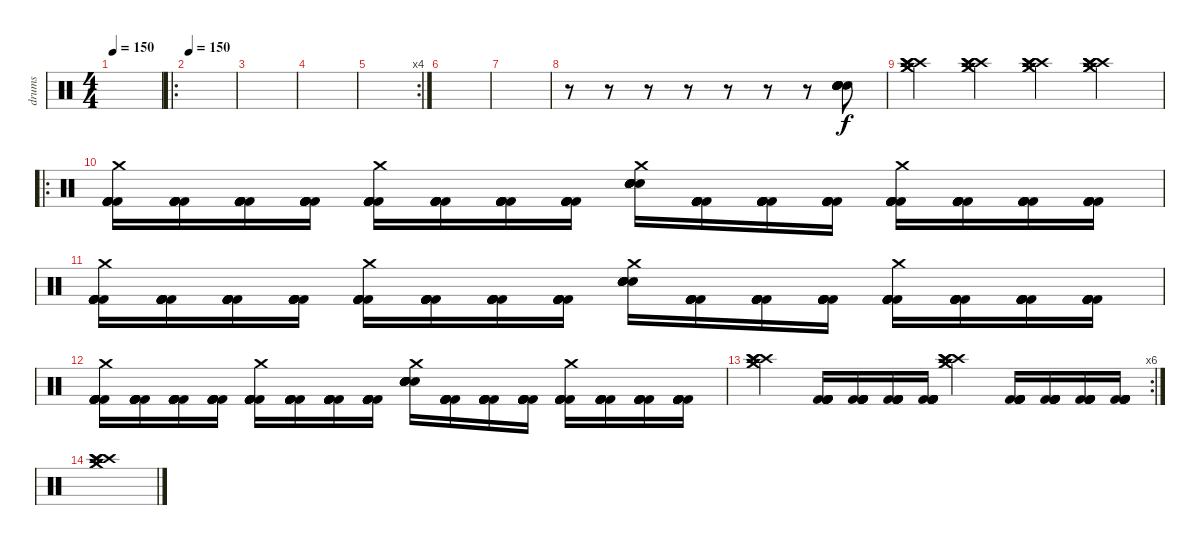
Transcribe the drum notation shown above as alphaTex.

\track ("drums" "drums") {instrument percussion}
\staff {score}
\articulation defaults
\ts (4 4)
\tempo 150
\clef neutral
\ks c
|
\ro
\tempo 150
|
|
|
\rc 4
|
|
|
r.8 r.8 r.8 r.8 r.8 r.8 r.8 ("Snare (hit) 2" "Snare (hit) 2" "Snare (hit) 2" "Electric Snare (hit)" "Electric Snare (hit)" "Electric Snare (hit)").8 |
("Crash medium (hit)" "Crash medium (hit)" "Crash high (hit)" "Crash high (hit)" "Crash high (hit)" "Crash high (hit)").4 ("Crash medium (hit)" "Crash medium (hit)" "Crash high (hit)" "Crash high (hit)" "Crash high (hit)" "Crash high (hit)").4 ("Crash medium (hit)" "Crash medium (hit)" "Crash high (hit)" "Crash high (hit)" "Crash high (hit)" "Crash high (hit)").4 ("Crash medium (hit)" "Crash medium (hit)" "Crash high (hit)" "Crash high (hit)" "Crash high (hit)" "Crash high (hit)").4 |
\ro
("Crash medium (hit)" "Kick (hit) 2" "Kick (hit) 2" "Kick (hit) 2" "Kick (hit) 2" "Kick (hit) 2").16 ("Kick (hit) 2" "Kick (hit) 2" "Kick (hit) 2" "Kick (hit) 2" "Kick (hit) 2" "Kick (hit) 2").16 ("Kick (hit) 2" "Kick (hit) 2" "Kick (hit) 2" "Kick (hit) 2" "Kick (hit) 2" "Kick (hit) 2").16 ("Kick (hit) 2" "Kick (hit) 2" "Kick (hit) 2" "Kick (hit) 2" "Kick (hit) 2" "Kick (hit) 2").16 ("Crash medium (hit)" "Kick (hit) 2" "Kick (hit) 2" "Kick (hit) 2" "Kick (hit) 2" "Kick (hit) 2").16 ("Kick (hit) 2" "Kick (hit) 2" "Kick (hit) 2" "Kick (hit) 2" "Kick (hit) 2" "Kick (hit) 2").16 ("Kick (hit) 2" "Kick (hit) 2" "Kick (hit) 2" "Kick (hit) 2" "Kick (hit) 2" "Kick (hit) 2").16 ("Kick (hit) 2" "Kick (hit) 2" "Kick (hit) 2" "Kick (hit) 2" "Kick (hit) 2" "Kick (hit) 2").16 ("Crash medium (hit)" "Snare (hit) 2" "Snare (hit) 2" "Electric Snare (hit)" "Electric Snare (hit)" "Electric Snare (hit)").16 ("Kick (hit) 2" "Kick (hit) 2" "Kick (hit) 2" "Kick (hit) 2" "Kick (hit) 2" "Kick (hit) 2").16 ("Kick (hit) 2" "Kick (hit) 2" "Kick (hit) 2" "Kick (hit) 2" "Kick (hit) 2" "Kick (hit) 2").16 ("Kick (hit) 2" "Kick (hit) 2" "Kick (hit) 2" "Kick (hit) 2" "Kick (hit) 2" "Kick (hit) 2").16 ("Crash medium (hit)" "Kick (hit) 2" "Kick (hit) 2" "Kick (hit) 2" "Kick (hit) 2" "Kick (hit) 2").16 ("Kick (hit) 2" "Kick (hit) 2" "Kick (hit) 2" "Kick (hit) 2" "Kick (hit) 2" "Kick (hit) 2").16 ("Kick (hit) 2" "Kick (hit) 2" "Kick (hit) 2" "Kick (hit) 2" "Kick (hit) 2" "Kick (hit) 2").16 ("Kick (hit) 2" "Kick (hit) 2" "Kick (hit) 2" "Kick (hit) 2" "Kick (hit) 2" "Kick (hit) 2").16 |
("Crash medium (hit)" "Kick (hit) 2" "Kick (hit) 2" "Kick (hit) 2" "Kick (hit) 2" "Kick (hit) 2").16 ("Kick (hit) 2" "Kick (hit) 2" "Kick (hit) 2" "Kick (hit) 2" "Kick (hit) 2" "Kick (hit) 2").16 ("Kick (hit) 2" "Kick (hit) 2" "Kick (hit) 2" "Kick (hit) 2" "Kick (hit) 2" "Kick (hit) 2").16 ("Kick (hit) 2" "Kick (hit) 2" "Kick (hit) 2" "Kick (hit) 2" "Kick (hit) 2" "Kick (hit) 2").16 ("Crash medium (hit)" "Kick (hit) 2" "Kick (hit) 2" "Kick (hit) 2" "Kick (hit) 2" "Kick (hit) 2").16 ("Kick (hit) 2" "Kick (hit) 2" "Kick (hit) 2" "Kick (hit) 2" "Kick (hit) 2" "Kick (hit) 2").16 ("Kick (hit) 2" "Kick (hit) 2" "Kick (hit) 2" "Kick (hit) 2" "Kick (hit) 2" "Kick (hit) 2").16 ("Kick (hit) 2" "Kick (hit) 2" "Kick (hit) 2" "Kick (hit) 2" "Kick (hit) 2" "Kick (hit) 2").16 ("Crash medium (hit)" "Snare (hit) 2" "Snare (hit) 2" "Electric Snare (hit)" "Electric Snare (hit)" "Electric Snare (hit)").16 ("Kick (hit) 2" "Kick (hit) 2" "Kick (hit) 2" "Kick (hit) 2" "Kick (hit) 2" "Kick (hit) 2").16 ("Kick (hit) 2" "Kick (hit) 2" "Kick (hit) 2" "Kick (hit) 2" "Kick (hit) 2" "Kick (hit) 2").16 ("Kick (hit) 2" "Kick (hit) 2" "Kick (hit) 2" "Kick (hit) 2" "Kick (hit) 2" "Kick (hit) 2").16 ("Crash medium (hit)" "Kick (hit) 2" "Kick (hit) 2" "Kick (hit) 2" "Kick (hit) 2" "Kick (hit) 2").16 ("Kick (hit) 2" "Kick (hit) 2" "Kick (hit) 2" "Kick (hit) 2" "Kick (hit) 2" "Kick (hit) 2").16 ("Kick (hit) 2" "Kick (hit) 2" "Kick (hit) 2" "Kick (hit) 2" "Kick (hit) 2" "Kick (hit) 2").16 ("Kick (hit) 2" "Kick (hit) 2" "Kick (hit) 2" "Kick (hit) 2" "Kick (hit) 2" "Kick (hit) 2").16 |
("Crash medium (hit)" "Kick (hit) 2" "Kick (hit) 2" "Kick (hit) 2" "Kick (hit) 2" "Kick (hit) 2").16 ("Kick (hit) 2" "Kick (hit) 2" "Kick (hit) 2" "Kick (hit) 2" "Kick (hit) 2" "Kick (hit) 2").16 ("Kick (hit) 2" "Kick (hit) 2" "Kick (hit) 2" "Kick (hit) 2" "Kick (hit) 2" "Kick (hit) 2").16 ("Kick (hit) 2" "Kick (hit) 2" "Kick (hit) 2" "Kick (hit) 2" "Kick (hit) 2" "Kick (hit) 2").16 ("Crash medium (hit)" "Kick (hit) 2" "Kick (hit) 2" "Kick (hit) 2" "Kick (hit) 2" "Kick (hit) 2").16 ("Kick (hit) 2" "Kick (hit) 2" "Kick (hit) 2" "Kick (hit) 2" "Kick (hit) 2" "Kick (hit) 2").16 ("Kick (hit) 2" "Kick (hit) 2" "Kick (hit) 2" "Kick (hit) 2" "Kick (hit) 2" "Kick (hit) 2").16 ("Kick (hit) 2" "Kick (hit) 2" "Kick (hit) 2" "Kick (hit) 2" "Kick (hit) 2" "Kick (hit) 2").16 ("Crash medium (hit)" "Snare (hit) 2" "Snare (hit) 2" "Electric Snare (hit)" "Electric Snare (hit)" "Electric Snare (hit)").16 ("Kick (hit) 2" "Kick (hit) 2" "Kick (hit) 2" "Kick (hit) 2" "Kick (hit) 2" "Kick (hit) 2").16 ("Kick (hit) 2" "Kick (hit) 2" "Kick (hit) 2" "Kick (hit) 2" "Kick (hit) 2" "Kick (hit) 2").16 ("Kick (hit) 2" "Kick (hit) 2" "Kick (hit) 2" "Kick (hit) 2" "Kick (hit) 2" "Kick (hit) 2").16 ("Crash medium (hit)" "Kick (hit) 2" "Kick (hit) 2" "Kick (hit) 2" "Kick (hit) 2" "Kick (hit) 2").16 ("Kick (hit) 2" "Kick (hit) 2" "Kick (hit) 2" "Kick (hit) 2" "Kick (hit) 2" "Kick (hit) 2").16 ("Kick (hit) 2" "Kick (hit) 2" "Kick (hit) 2" "Kick (hit) 2" "Kick (hit) 2" "Kick (hit) 2").16 ("Kick (hit) 2" "Kick (hit) 2" "Kick (hit) 2" "Kick (hit) 2" "Kick (hit) 2" "Kick (hit) 2").16 |
\rc 6
("Crash medium (hit)" "Crash medium (hit)" "Crash high (hit)" "Crash high (hit)" "Crash high (hit)" "Crash high (hit)").4 ("Kick (hit) 2" "Kick (hit) 2" "Kick (hit) 2" "Kick (hit) 2" "Kick (hit) 2" "Kick (hit) 2").16 ("Kick (hit) 2" "Kick (hit) 2" "Kick (hit) 2" "Kick (hit) 2" "Kick (hit) 2" "Kick (hit) 2").16 ("Kick (hit) 2" "Kick (hit) 2" "Kick (hit) 2" "Kick (hit) 2" "Kick (hit) 2" "Kick (hit) 2").16 ("Kick (hit) 2" "Kick (hit) 2" "Kick (hit) 2" "Kick (hit) 2" "Kick (hit) 2" "Kick (hit) 2").16 ("Crash medium (hit)" "Crash medium (hit)" "Crash high (hit)" "Crash high (hit)" "Crash high (hit)" "Crash high (hit)").4 ("Kick (hit) 2" "Kick (hit) 2" "Kick (hit) 2" "Kick (hit) 2" "Kick (hit) 2" "Kick (hit) 2").16 ("Kick (hit) 2" "Kick (hit) 2" "Kick (hit) 2" "Kick (hit) 2" "Kick (hit) 2" "Kick (hit) 2").16 ("Kick (hit) 2" "Kick (hit) 2" "Kick (hit) 2" "Kick (hit) 2" "Kick (hit) 2" "Kick (hit) 2").16 ("Kick (hit) 2" "Kick (hit) 2" "Kick (hit) 2" "Kick (hit) 2" "Kick (hit) 2" "Kick (hit) 2").16 |
("Crash medium (hit)" "Crash medium (hit)" "Crash high (hit)" "Crash high (hit)" "Crash high (hit)" "Crash high (hit)").1
